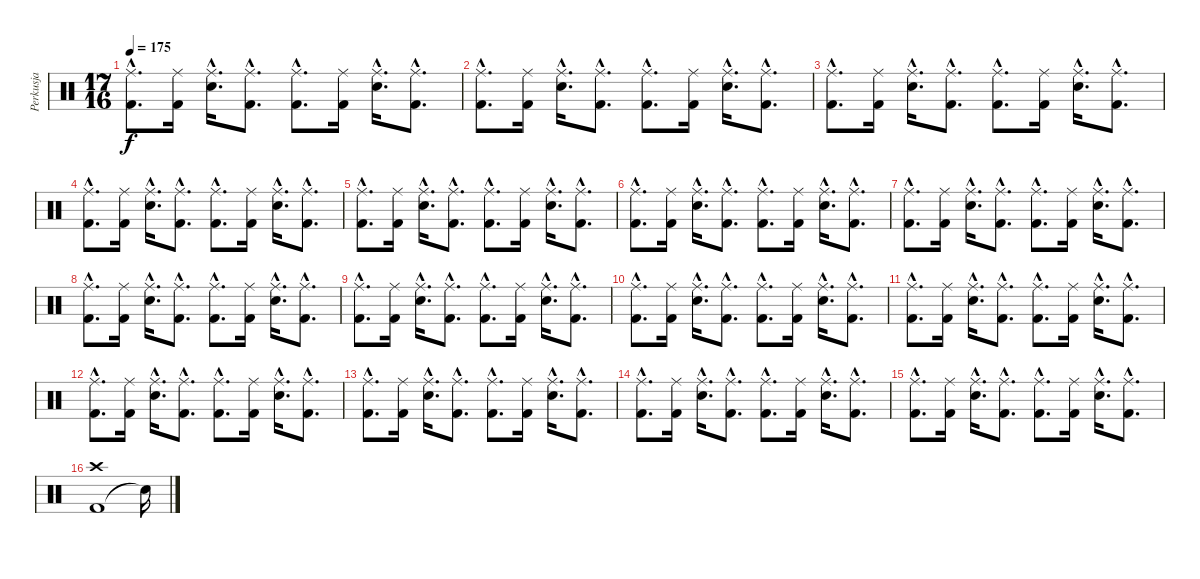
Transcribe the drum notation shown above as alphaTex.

\track ("Perkusja" "Perkusja") {instrument percussion}
\staff {score}
\articulation defaults
\ts (17 16)
\tempo 175
\clef neutral
\ks c
("Kick (hit) 2"{hac} "Ride (middle)"{hac}).8{d dy f} ("Kick (hit) 2" "Ride (middle)").16 ("Snare (hit) 2"{hac} "Ride (middle)"{hac}).16{d} ("Kick (hit) 2"{hac} "Ride (middle)"{hac}).8{d} ("Kick (hit) 2"{hac} "Ride (middle)"{hac}).8{d} ("Kick (hit) 2" "Ride (middle)").16 ("Snare (hit) 2"{hac} "Ride (middle)"{hac}).16{d} ("Kick (hit) 2"{hac} "Ride (middle)"{hac}).8{d} |
("Kick (hit) 2"{hac} "Ride (middle)"{hac}).8{d} ("Kick (hit) 2" "Ride (middle)").16 ("Snare (hit) 2"{hac} "Ride (middle)"{hac}).16{d} ("Kick (hit) 2"{hac} "Ride (middle)"{hac}).8{d} ("Kick (hit) 2"{hac} "Ride (middle)"{hac}).8{d} ("Kick (hit) 2" "Ride (middle)").16 ("Snare (hit) 2"{hac} "Ride (middle)"{hac}).16{d} ("Kick (hit) 2"{hac} "Ride (middle)"{hac}).8{d} |
("Kick (hit) 2"{hac} "Ride (middle)"{hac}).8{d} ("Kick (hit) 2" "Ride (middle)").16 ("Snare (hit) 2"{hac} "Ride (middle)"{hac}).16{d} ("Kick (hit) 2"{hac} "Ride (middle)"{hac}).8{d} ("Kick (hit) 2"{hac} "Ride (middle)"{hac}).8{d} ("Kick (hit) 2" "Ride (middle)").16 ("Snare (hit) 2"{hac} "Ride (middle)"{hac}).16{d} ("Kick (hit) 2"{hac} "Ride (middle)"{hac}).8{d} |
("Kick (hit) 2"{hac} "Ride (middle)"{hac}).8{d} ("Kick (hit) 2" "Ride (middle)").16 ("Snare (hit) 2"{hac} "Ride (middle)"{hac}).16{d} ("Kick (hit) 2"{hac} "Ride (middle)"{hac}).8{d} ("Kick (hit) 2"{hac} "Ride (middle)"{hac}).8{d} ("Kick (hit) 2" "Ride (middle)").16 ("Snare (hit) 2"{hac} "Ride (middle)"{hac}).16{d} ("Kick (hit) 2"{hac} "Ride (middle)"{hac}).8{d} |
("Kick (hit) 2"{hac} "Ride (middle)"{hac}).8{d} ("Kick (hit) 2" "Ride (middle)").16 ("Snare (hit) 2"{hac} "Ride (middle)"{hac}).16{d} ("Kick (hit) 2"{hac} "Ride (middle)"{hac}).8{d} ("Kick (hit) 2"{hac} "Ride (middle)"{hac}).8{d} ("Kick (hit) 2" "Ride (middle)").16 ("Snare (hit) 2"{hac} "Ride (middle)"{hac}).16{d} ("Kick (hit) 2"{hac} "Ride (middle)"{hac}).8{d} |
("Kick (hit) 2"{hac} "Ride (middle)"{hac}).8{d} ("Kick (hit) 2" "Ride (middle)").16 ("Snare (hit) 2"{hac} "Ride (middle)"{hac}).16{d} ("Kick (hit) 2"{hac} "Ride (middle)"{hac}).8{d} ("Kick (hit) 2"{hac} "Ride (middle)"{hac}).8{d} ("Kick (hit) 2" "Ride (middle)").16 ("Snare (hit) 2"{hac} "Ride (middle)"{hac}).16{d} ("Kick (hit) 2"{hac} "Ride (middle)"{hac}).8{d} |
("Kick (hit) 2"{hac} "Ride (middle)"{hac}).8{d} ("Kick (hit) 2" "Ride (middle)").16 ("Snare (hit) 2"{hac} "Ride (middle)"{hac}).16{d} ("Kick (hit) 2"{hac} "Ride (middle)"{hac}).8{d} ("Kick (hit) 2"{hac} "Ride (middle)"{hac}).8{d} ("Kick (hit) 2" "Ride (middle)").16 ("Snare (hit) 2"{hac} "Ride (middle)"{hac}).16{d} ("Kick (hit) 2"{hac} "Ride (middle)"{hac}).8{d} |
("Kick (hit) 2"{hac} "Ride (middle)"{hac}).8{d} ("Kick (hit) 2" "Ride (middle)").16 ("Snare (hit) 2"{hac} "Ride (middle)"{hac}).16{d} ("Kick (hit) 2"{hac} "Ride (middle)"{hac}).8{d} ("Kick (hit) 2"{hac} "Ride (middle)"{hac}).8{d} ("Kick (hit) 2" "Ride (middle)").16 ("Snare (hit) 2"{hac} "Ride (middle)"{hac}).16{d} ("Kick (hit) 2"{hac} "Ride (middle)"{hac}).8{d} |
("Kick (hit) 2"{hac} "Ride (middle)"{hac}).8{d} ("Kick (hit) 2" "Ride (middle)").16 ("Snare (hit) 2"{hac} "Ride (middle)"{hac}).16{d} ("Kick (hit) 2"{hac} "Ride (middle)"{hac}).8{d} ("Kick (hit) 2"{hac} "Ride (middle)"{hac}).8{d} ("Kick (hit) 2" "Ride (middle)").16 ("Snare (hit) 2"{hac} "Ride (middle)"{hac}).16{d} ("Kick (hit) 2"{hac} "Ride (middle)"{hac}).8{d} |
("Kick (hit) 2"{hac} "Ride (middle)"{hac}).8{d} ("Kick (hit) 2" "Ride (middle)").16 ("Snare (hit) 2"{hac} "Ride (middle)"{hac}).16{d} ("Kick (hit) 2"{hac} "Ride (middle)"{hac}).8{d} ("Kick (hit) 2"{hac} "Ride (middle)"{hac}).8{d} ("Kick (hit) 2" "Ride (middle)").16 ("Snare (hit) 2"{hac} "Ride (middle)"{hac}).16{d} ("Kick (hit) 2"{hac} "Ride (middle)"{hac}).8{d} |
("Kick (hit) 2"{hac} "Ride (middle)"{hac}).8{d} ("Kick (hit) 2" "Ride (middle)").16 ("Snare (hit) 2"{hac} "Ride (middle)"{hac}).16{d} ("Kick (hit) 2"{hac} "Ride (middle)"{hac}).8{d} ("Kick (hit) 2"{hac} "Ride (middle)"{hac}).8{d} ("Kick (hit) 2" "Ride (middle)").16 ("Snare (hit) 2"{hac} "Ride (middle)"{hac}).16{d} ("Kick (hit) 2"{hac} "Ride (middle)"{hac}).8{d} |
("Kick (hit) 2"{hac} "Ride (middle)"{hac}).8{d} ("Kick (hit) 2" "Ride (middle)").16 ("Snare (hit) 2"{hac} "Ride (middle)"{hac}).16{d} ("Kick (hit) 2"{hac} "Ride (middle)"{hac}).8{d} ("Kick (hit) 2"{hac} "Ride (middle)"{hac}).8{d} ("Kick (hit) 2" "Ride (middle)").16 ("Snare (hit) 2"{hac} "Ride (middle)"{hac}).16{d} ("Kick (hit) 2"{hac} "Ride (middle)"{hac}).8{d} |
("Kick (hit) 2"{hac} "Ride (middle)"{hac}).8{d} ("Kick (hit) 2" "Ride (middle)").16 ("Snare (hit) 2"{hac} "Ride (middle)"{hac}).16{d} ("Kick (hit) 2"{hac} "Ride (middle)"{hac}).8{d} ("Kick (hit) 2"{hac} "Ride (middle)"{hac}).8{d} ("Kick (hit) 2" "Ride (middle)").16 ("Snare (hit) 2"{hac} "Ride (middle)"{hac}).16{d} ("Kick (hit) 2"{hac} "Ride (middle)"{hac}).8{d} |
("Kick (hit) 2"{hac} "Ride (middle)"{hac}).8{d} ("Kick (hit) 2" "Ride (middle)").16 ("Snare (hit) 2"{hac} "Ride (middle)"{hac}).16{d} ("Kick (hit) 2"{hac} "Ride (middle)"{hac}).8{d} ("Kick (hit) 2"{hac} "Ride (middle)"{hac}).8{d} ("Kick (hit) 2" "Ride (middle)").16 ("Snare (hit) 2"{hac} "Ride (middle)"{hac}).16{d} ("Kick (hit) 2"{hac} "Ride (middle)"{hac}).8{d} |
("Kick (hit) 2"{hac} "Ride (middle)"{hac}).8{d} ("Kick (hit) 2" "Ride (middle)").16 ("Snare (hit) 2"{hac} "Ride (middle)"{hac}).16{d} ("Kick (hit) 2"{hac} "Ride (middle)"{hac}).8{d} ("Kick (hit) 2"{hac} "Ride (middle)"{hac}).8{d} ("Kick (hit) 2" "Ride (middle)").16 ("Snare (hit) 2"{hac} "Ride (middle)"{hac}).16{d} ("Kick (hit) 2"{hac} "Ride (middle)"{hac}).8{d} |
("Kick (hit) 2" "Crash high (hit)").1 "Snare (hit)"{t}.16
